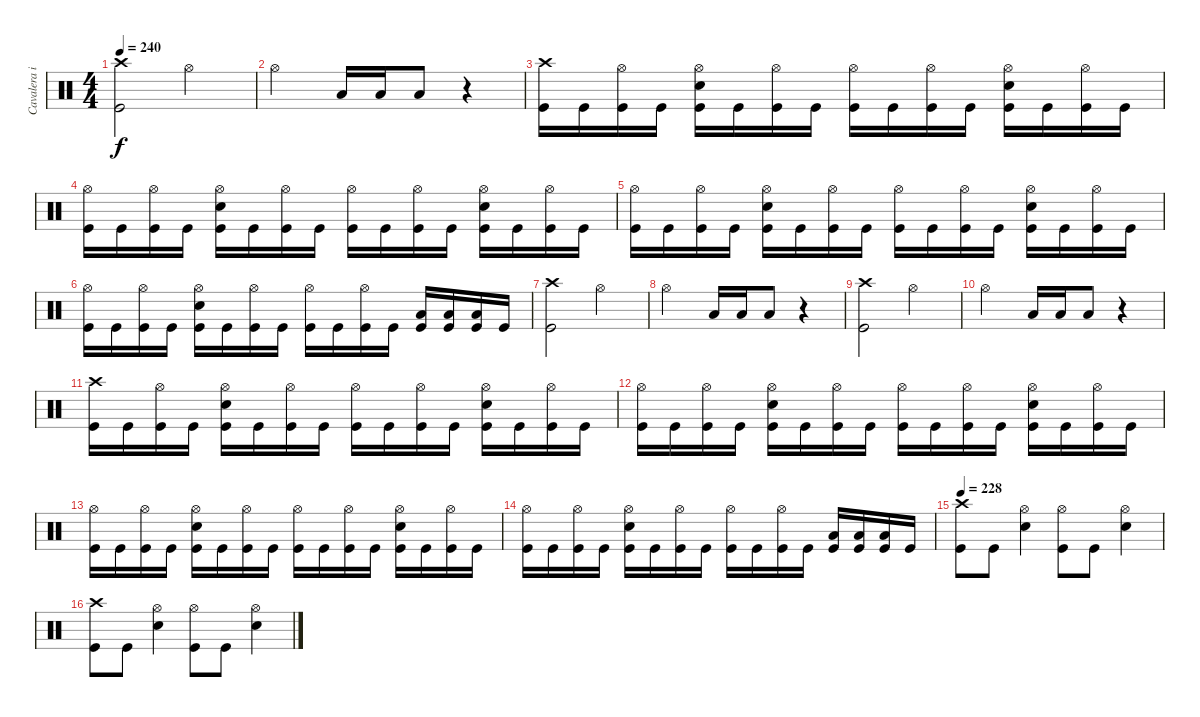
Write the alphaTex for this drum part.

\track ("Cavalera igor" "Cavalera i") {instrument percussion}
\staff {score}
\articulation defaults
\ts (4 4)
\tempo 240
\clef neutral
\ks c
("Crash high (hit)" "Kick (hit)").2{dy f} "Hi-Hat (open)".2 |
"Hi-Hat (open)".2 "Low Tom (hit)".16 "Low Tom (hit)".16 "Low Tom (hit)".8 r.4 |
("Crash high (hit)" "Kick (hit)").16 "Kick (hit)".16 ("Hi-Hat (open)" "Kick (hit)").16 "Kick (hit)".16 ("Hi-Hat (open)" "Electric Snare (hit)" "Kick (hit)").16 "Kick (hit)".16 ("Hi-Hat (open)" "Kick (hit)").16 "Kick (hit)".16 ("Hi-Hat (open)" "Kick (hit)").16 "Kick (hit)".16 ("Hi-Hat (open)" "Kick (hit)").16 "Kick (hit)".16 ("Hi-Hat (open)" "Electric Snare (hit)" "Kick (hit)").16 "Kick (hit)".16 ("Hi-Hat (open)" "Kick (hit)").16 "Kick (hit)".16 |
("Hi-Hat (open)" "Kick (hit)").16 "Kick (hit)".16 ("Hi-Hat (open)" "Kick (hit)").16 "Kick (hit)".16 ("Hi-Hat (open)" "Electric Snare (hit)" "Kick (hit)").16 "Kick (hit)".16 ("Hi-Hat (open)" "Kick (hit)").16 "Kick (hit)".16 ("Hi-Hat (open)" "Kick (hit)").16 "Kick (hit)".16 ("Hi-Hat (open)" "Kick (hit)").16 "Kick (hit)".16 ("Hi-Hat (open)" "Electric Snare (hit)" "Kick (hit)").16 "Kick (hit)".16 ("Hi-Hat (open)" "Kick (hit)").16 "Kick (hit)".16 |
("Hi-Hat (open)" "Kick (hit)").16 "Kick (hit)".16 ("Hi-Hat (open)" "Kick (hit)").16 "Kick (hit)".16 ("Hi-Hat (open)" "Electric Snare (hit)" "Kick (hit)").16 "Kick (hit)".16 ("Hi-Hat (open)" "Kick (hit)").16 "Kick (hit)".16 ("Hi-Hat (open)" "Kick (hit)").16 "Kick (hit)".16 ("Hi-Hat (open)" "Kick (hit)").16 "Kick (hit)".16 ("Hi-Hat (open)" "Electric Snare (hit)" "Kick (hit)").16 "Kick (hit)".16 ("Hi-Hat (open)" "Kick (hit)").16 "Kick (hit)".16 |
("Hi-Hat (open)" "Kick (hit)").16 "Kick (hit)".16 ("Hi-Hat (open)" "Kick (hit)").16 "Kick (hit)".16 ("Hi-Hat (open)" "Electric Snare (hit)" "Kick (hit)").16 "Kick (hit)".16 ("Hi-Hat (open)" "Kick (hit)").16 "Kick (hit)".16 ("Hi-Hat (open)" "Kick (hit)").16 "Kick (hit)".16 ("Hi-Hat (open)" "Kick (hit)").16 "Kick (hit)".16 ("Low Tom (hit)" "Kick (hit)").16 ("Low Tom (hit)" "Kick (hit)").16 ("Low Tom (hit)" "Kick (hit)").16 "Kick (hit)".16 |
("Crash high (hit)" "Kick (hit)").2 "Hi-Hat (open)".2 |
"Hi-Hat (open)".2 "Low Tom (hit)".16 "Low Tom (hit)".16 "Low Tom (hit)".8 r.4 |
("Crash high (hit)" "Kick (hit)").2 "Hi-Hat (open)".2 |
"Hi-Hat (open)".2 "Low Tom (hit)".16 "Low Tom (hit)".16 "Low Tom (hit)".8 r.4 |
("Crash high (hit)" "Kick (hit)").16 "Kick (hit)".16 ("Hi-Hat (open)" "Kick (hit)").16 "Kick (hit)".16 ("Hi-Hat (open)" "Electric Snare (hit)" "Kick (hit)").16 "Kick (hit)".16 ("Hi-Hat (open)" "Kick (hit)").16 "Kick (hit)".16 ("Hi-Hat (open)" "Kick (hit)").16 "Kick (hit)".16 ("Hi-Hat (open)" "Kick (hit)").16 "Kick (hit)".16 ("Hi-Hat (open)" "Electric Snare (hit)" "Kick (hit)").16 "Kick (hit)".16 ("Hi-Hat (open)" "Kick (hit)").16 "Kick (hit)".16 |
("Hi-Hat (open)" "Kick (hit)").16 "Kick (hit)".16 ("Hi-Hat (open)" "Kick (hit)").16 "Kick (hit)".16 ("Hi-Hat (open)" "Electric Snare (hit)" "Kick (hit)").16 "Kick (hit)".16 ("Hi-Hat (open)" "Kick (hit)").16 "Kick (hit)".16 ("Hi-Hat (open)" "Kick (hit)").16 "Kick (hit)".16 ("Hi-Hat (open)" "Kick (hit)").16 "Kick (hit)".16 ("Hi-Hat (open)" "Electric Snare (hit)" "Kick (hit)").16 "Kick (hit)".16 ("Hi-Hat (open)" "Kick (hit)").16 "Kick (hit)".16 |
("Hi-Hat (open)" "Kick (hit)").16 "Kick (hit)".16 ("Hi-Hat (open)" "Kick (hit)").16 "Kick (hit)".16 ("Hi-Hat (open)" "Electric Snare (hit)" "Kick (hit)").16 "Kick (hit)".16 ("Hi-Hat (open)" "Kick (hit)").16 "Kick (hit)".16 ("Hi-Hat (open)" "Kick (hit)").16 "Kick (hit)".16 ("Hi-Hat (open)" "Kick (hit)").16 "Kick (hit)".16 ("Hi-Hat (open)" "Electric Snare (hit)" "Kick (hit)").16 "Kick (hit)".16 ("Hi-Hat (open)" "Kick (hit)").16 "Kick (hit)".16 |
("Hi-Hat (open)" "Kick (hit)").16 "Kick (hit)".16 ("Hi-Hat (open)" "Kick (hit)").16 "Kick (hit)".16 ("Hi-Hat (open)" "Electric Snare (hit)" "Kick (hit)").16 "Kick (hit)".16 ("Hi-Hat (open)" "Kick (hit)").16 "Kick (hit)".16 ("Hi-Hat (open)" "Kick (hit)").16 "Kick (hit)".16 ("Hi-Hat (open)" "Kick (hit)").16 "Kick (hit)".16 ("Low Tom (hit)" "Kick (hit)").16 ("Low Tom (hit)" "Kick (hit)").16 ("Low Tom (hit)" "Kick (hit)").16 "Kick (hit)".16 |
\tempo 228
("Crash high (hit)" "Kick (hit)").8 "Kick (hit)".8 ("Hi-Hat (open)" "Electric Snare (hit)").4 ("Hi-Hat (open)" "Kick (hit)").8 "Kick (hit)".8 ("Hi-Hat (open)" "Electric Snare (hit)").4 |
("Crash high (hit)" "Kick (hit)").8 "Kick (hit)".8 ("Hi-Hat (open)" "Electric Snare (hit)").4 ("Hi-Hat (open)" "Kick (hit)").8 "Kick (hit)".8 ("Hi-Hat (open)" "Electric Snare (hit)").4
